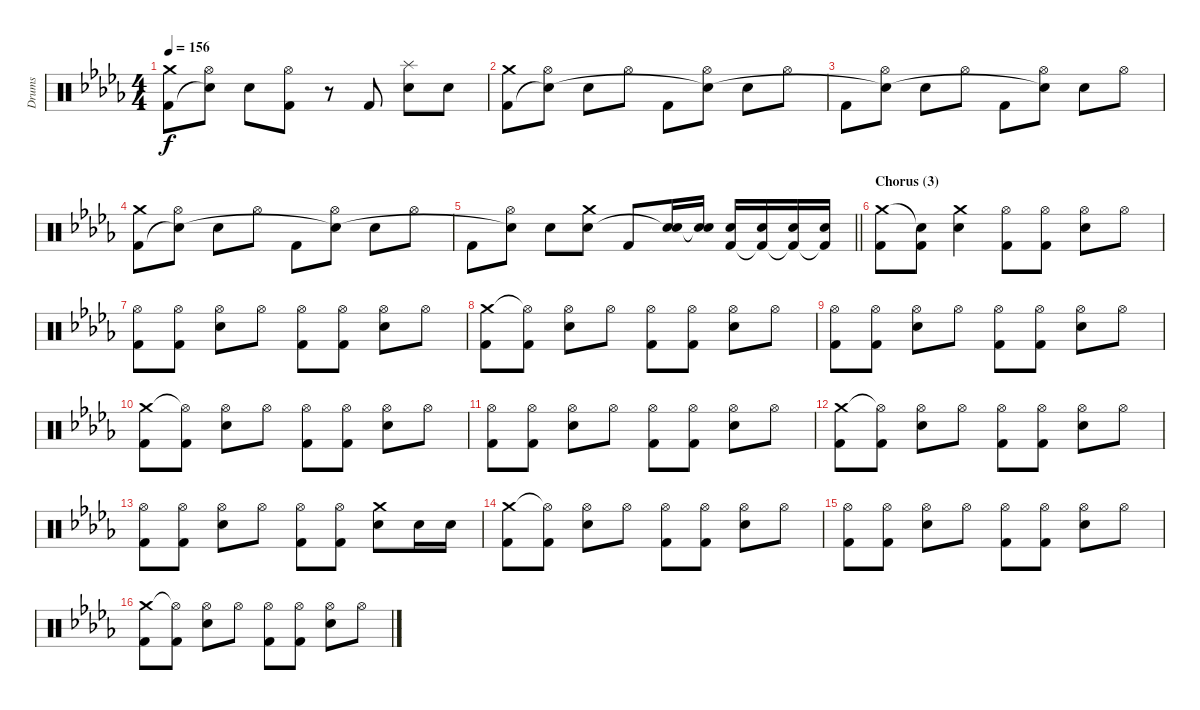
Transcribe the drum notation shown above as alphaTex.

\track ("Drums" "Drums") {instrument percussion}
\staff {score}
\articulation defaults
\ts (4 4)
\tempo 156
\clef neutral
\ks db
("Crash medium (hit)" "Kick (hit) 2").8{dy f} ("Hi-Hat (open)" "Snare (hit)"{t}).8 "Electric Snare (hit)".8 ("Hi-Hat (open)" "Kick (hit) 2").8 r.8 "Kick (hit) 2".8 ("Splash (hit)" "Electric Snare (hit)").8 "Electric Snare (hit)".8 |
("Crash medium (hit)" "Kick (hit) 2").8 ("Hi-Hat (open)" "Snare (hit)"{t}).8 "Electric Snare (hit)".8 "Hi-Hat (open)".8 "Kick (hit) 2".8 ("Hi-Hat (open)" "Snare (hit)"{t}).8 "Electric Snare (hit)".8 "Hi-Hat (open)".8 |
"Kick (hit) 2".8 ("Hi-Hat (open)" "Snare (hit)"{t}).8 "Electric Snare (hit)".8 "Hi-Hat (open)".8 "Kick (hit) 2".8 ("Hi-Hat (open)" "Snare (hit)"{t}).8 "Electric Snare (hit)".8 "Hi-Hat (open)".8 |
("Crash medium (hit)" "Kick (hit) 2").8 ("Hi-Hat (open)" "Snare (hit)"{t}).8 "Electric Snare (hit)".8 "Hi-Hat (open)".8 "Kick (hit) 2".8 ("Hi-Hat (open)" "Snare (hit)"{t}).8 "Electric Snare (hit)".8 "Hi-Hat (open)".8 |
\barLineRight lightlight "Kick (hit) 2".8
("Hi-Hat (open)" "Snare (hit)"{t}).8 "Electric Snare (hit)".8 ("Crash medium (hit)" "Electric Snare (hit)").8 "Kick (hit) 2".8 ("Electric Snare (hit)" "Snare (hit)"{t}).16 ("Electric Snare (hit)" "Snare (hit)"{t}).16 ("Electric Snare (hit)" "Kick (hit) 2").16 ("Electric Snare (hit)" "Kick (hit) 2"{t}).16 ("Electric Snare (hit)" "Kick (hit) 2"{t}).16 ("Electric Snare (hit)" "Kick (hit) 2"{t}).16 |
\section ("" "Chorus (3)")
("Crash medium (hit)" "Kick (hit) 2").8 ("Snare (hit)"{t} "Kick (hit) 2").8 ("Crash medium (hit)" "Electric Snare (hit)").4 ("Hi-Hat (open)" "Kick (hit) 2").8 ("Hi-Hat (open)" "Kick (hit) 2").8 ("Hi-Hat (open)" "Electric Snare (hit)").8 "Hi-Hat (open)".8 |
("Hi-Hat (open)" "Kick (hit) 2").8 ("Hi-Hat (open)" "Kick (hit) 2").8 ("Hi-Hat (open)" "Electric Snare (hit)").8 "Hi-Hat (open)".8 ("Hi-Hat (open)" "Kick (hit) 2").8 ("Hi-Hat (open)" "Kick (hit) 2").8 ("Hi-Hat (open)" "Electric Snare (hit)").8 "Hi-Hat (open)".8 |
("Crash medium (hit)" "Kick (hit) 2").8 ("Hi-Hat (open)"{t} "Kick (hit) 2").8 ("Hi-Hat (open)" "Electric Snare (hit)").8 "Hi-Hat (open)".8 ("Hi-Hat (open)" "Kick (hit) 2").8 ("Hi-Hat (open)" "Kick (hit) 2").8 ("Hi-Hat (open)" "Electric Snare (hit)").8 "Hi-Hat (open)".8 |
("Hi-Hat (open)" "Kick (hit) 2").8 ("Hi-Hat (open)" "Kick (hit) 2").8 ("Hi-Hat (open)" "Electric Snare (hit)").8 "Hi-Hat (open)".8 ("Hi-Hat (open)" "Kick (hit) 2").8 ("Hi-Hat (open)" "Kick (hit) 2").8 ("Hi-Hat (open)" "Electric Snare (hit)").8 "Hi-Hat (open)".8 |
("Crash medium (hit)" "Kick (hit) 2").8 ("Hi-Hat (open)"{t} "Kick (hit) 2").8 ("Hi-Hat (open)" "Electric Snare (hit)").8 "Hi-Hat (open)".8 ("Hi-Hat (open)" "Kick (hit) 2").8 ("Hi-Hat (open)" "Kick (hit) 2").8 ("Hi-Hat (open)" "Electric Snare (hit)").8 "Hi-Hat (open)".8 |
("Hi-Hat (open)" "Kick (hit) 2").8 ("Hi-Hat (open)" "Kick (hit) 2").8 ("Hi-Hat (open)" "Electric Snare (hit)").8 "Hi-Hat (open)".8 ("Hi-Hat (open)" "Kick (hit) 2").8 ("Hi-Hat (open)" "Kick (hit) 2").8 ("Hi-Hat (open)" "Electric Snare (hit)").8 "Hi-Hat (open)".8 |
("Crash medium (hit)" "Kick (hit) 2").8 ("Hi-Hat (open)"{t} "Kick (hit) 2").8 ("Hi-Hat (open)" "Electric Snare (hit)").8 "Hi-Hat (open)".8 ("Hi-Hat (open)" "Kick (hit) 2").8 ("Hi-Hat (open)" "Kick (hit) 2").8 ("Hi-Hat (open)" "Electric Snare (hit)").8 "Hi-Hat (open)".8 |
("Hi-Hat (open)" "Kick (hit) 2").8 ("Hi-Hat (open)" "Kick (hit) 2").8 ("Hi-Hat (open)" "Electric Snare (hit)").8 "Hi-Hat (open)".8 ("Hi-Hat (open)" "Kick (hit) 2").8 ("Hi-Hat (open)" "Kick (hit) 2").8 ("Crash medium (hit)" "Electric Snare (hit)").8 "Electric Snare (hit)".16 "Electric Snare (hit)".16 |
("Crash medium (hit)" "Kick (hit) 2").8 ("Hi-Hat (open)"{t} "Kick (hit) 2").8 ("Hi-Hat (open)" "Electric Snare (hit)").8 "Hi-Hat (open)".8 ("Hi-Hat (open)" "Kick (hit) 2").8 ("Hi-Hat (open)" "Kick (hit) 2").8 ("Hi-Hat (open)" "Electric Snare (hit)").8 "Hi-Hat (open)".8 |
("Hi-Hat (open)" "Kick (hit) 2").8 ("Hi-Hat (open)" "Kick (hit) 2").8 ("Hi-Hat (open)" "Electric Snare (hit)").8 "Hi-Hat (open)".8 ("Hi-Hat (open)" "Kick (hit) 2").8 ("Hi-Hat (open)" "Kick (hit) 2").8 ("Hi-Hat (open)" "Electric Snare (hit)").8 "Hi-Hat (open)".8 |
("Crash medium (hit)" "Kick (hit) 2").8 ("Hi-Hat (open)"{t} "Kick (hit) 2").8 ("Hi-Hat (open)" "Electric Snare (hit)").8 "Hi-Hat (open)".8 ("Hi-Hat (open)" "Kick (hit) 2").8 ("Hi-Hat (open)" "Kick (hit) 2").8 ("Hi-Hat (open)" "Electric Snare (hit)").8 "Hi-Hat (open)".8
